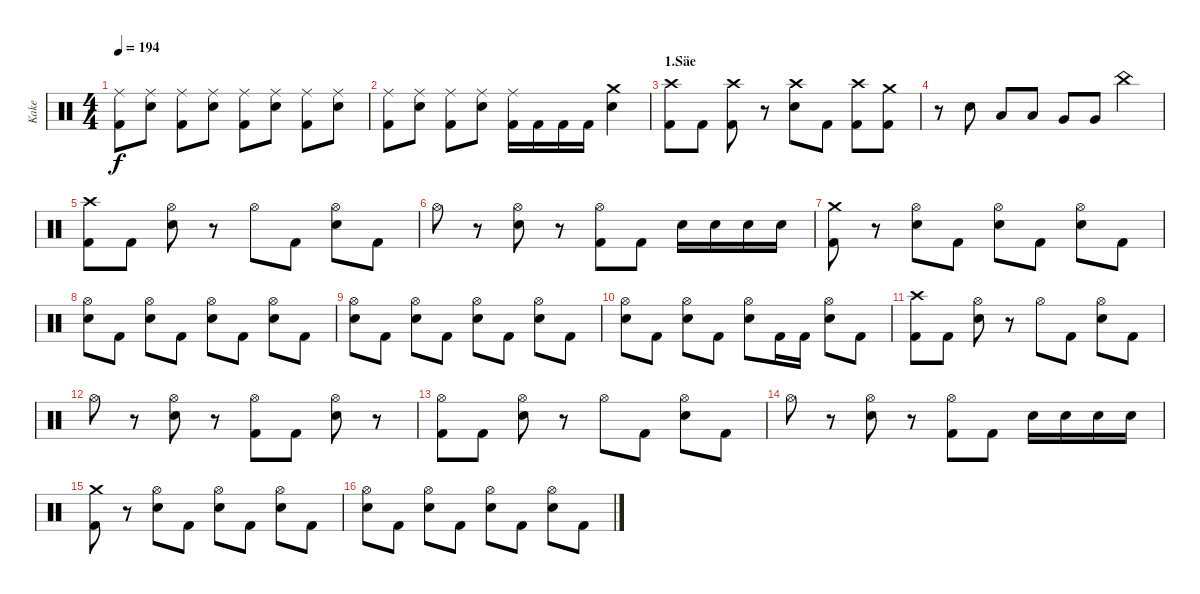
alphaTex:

\track ("Kake" "Kake") {instrument percussion}
\staff {score}
\articulation defaults
\ts (4 4)
\tempo 194
\clef neutral
\ks c
("Ride (middle)" "Kick (hit) 2").8{dy f} ("Ride (middle)" "Electric Snare (hit)").8 ("Ride (middle)" "Kick (hit) 2").8 ("Ride (middle)" "Electric Snare (hit)").8 ("Ride (middle)" "Kick (hit) 2").8 ("Ride (middle)" "Electric Snare (hit)").8 ("Ride (middle)" "Kick (hit) 2").8 ("Ride (middle)" "Electric Snare (hit)").8 |
("Ride (middle)" "Kick (hit) 2").8 ("Ride (middle)" "Electric Snare (hit)").8 ("Ride (middle)" "Kick (hit) 2").8 ("Ride (middle)" "Electric Snare (hit)").8 ("Ride (middle)" "Kick (hit) 2").16 "Kick (hit) 2".16 "Kick (hit) 2".16 "Kick (hit) 2".16 ("Crash medium (hit)" "Electric Snare (hit)").4 |
\section ("" "1.Säe")
("Crash high (hit)" "Kick (hit) 2").8 "Kick (hit) 2".8 ("Crash high (hit)" "Kick (hit) 2").8 r.8 ("Crash high (hit)" "Electric Snare (hit)").8 "Kick (hit) 2".8 ("Crash high (hit)" "Kick (hit) 2").8 ("Crash medium (hit)" "Kick (hit) 2").8 |
r.8 "Electric Snare (hit)".8 "Low Tom (hit)".8 "Low Tom (hit)".8 "Very Low Tom (hit)".8 "Very Low Tom (hit)".8 "China (hit)".4 |
("Crash high (hit)" "Kick (hit) 2").8 "Kick (hit) 2".8 ("Hi-Hat (open)" "Electric Snare (hit)").8 r.8 "Hi-Hat (open)".8 "Kick (hit) 2".8 ("Hi-Hat (open)" "Electric Snare (hit)").8 "Kick (hit) 2".8 |
"Hi-Hat (open)".8 r.8 ("Hi-Hat (open)" "Electric Snare (hit)").8 r.8 ("Hi-Hat (open)" "Kick (hit) 2").8 "Kick (hit) 2".8 "Electric Snare (hit)".16 "Electric Snare (hit)".16 "Electric Snare (hit)".16 "Electric Snare (hit)".16 |
("Crash medium (hit)" "Kick (hit) 2").8 r.8 ("Hi-Hat (open)" "Electric Snare (hit)").8 "Kick (hit) 2".8 ("Hi-Hat (open)" "Electric Snare (hit)").8 "Kick (hit) 2".8 ("Hi-Hat (open)" "Electric Snare (hit)").8 "Kick (hit) 2".8 |
("Hi-Hat (open)" "Electric Snare (hit)").8 "Kick (hit) 2".8 ("Hi-Hat (open)" "Electric Snare (hit)").8 "Kick (hit) 2".8 ("Hi-Hat (open)" "Electric Snare (hit)").8 "Kick (hit) 2".8 ("Hi-Hat (open)" "Electric Snare (hit)").8 "Kick (hit) 2".8 |
("Hi-Hat (open)" "Electric Snare (hit)").8 "Kick (hit) 2".8 ("Hi-Hat (open)" "Electric Snare (hit)").8 "Kick (hit) 2".8 ("Hi-Hat (open)" "Electric Snare (hit)").8 "Kick (hit) 2".8 ("Hi-Hat (open)" "Electric Snare (hit)").8 "Kick (hit) 2".8 |
("Hi-Hat (open)" "Electric Snare (hit)").8 "Kick (hit) 2".8 ("Hi-Hat (open)" "Electric Snare (hit)").8 "Kick (hit) 2".8 ("Hi-Hat (open)" "Electric Snare (hit)").8 "Kick (hit) 2".16 "Kick (hit) 2".16 ("Hi-Hat (open)" "Electric Snare (hit)").8 "Kick (hit) 2".8 |
("Crash high (hit)" "Kick (hit) 2").8 "Kick (hit) 2".8 ("Hi-Hat (open)" "Electric Snare (hit)").8 r.8 "Hi-Hat (open)".8 "Kick (hit) 2".8 ("Hi-Hat (open)" "Electric Snare (hit)").8 "Kick (hit) 2".8 |
"Hi-Hat (open)".8 r.8 ("Hi-Hat (open)" "Electric Snare (hit)").8 r.8 ("Hi-Hat (open)" "Kick (hit) 2").8 "Kick (hit) 2".8 ("Hi-Hat (open)" "Electric Snare (hit)").8 r.8 |
("Hi-Hat (open)" "Kick (hit) 2").8 "Kick (hit) 2".8 ("Hi-Hat (open)" "Electric Snare (hit)").8 r.8 "Hi-Hat (open)".8 "Kick (hit) 2".8 ("Hi-Hat (open)" "Electric Snare (hit)").8 "Kick (hit) 2".8 |
"Hi-Hat (open)".8 r.8 ("Hi-Hat (open)" "Electric Snare (hit)").8 r.8 ("Hi-Hat (open)" "Kick (hit) 2").8 "Kick (hit) 2".8 "Electric Snare (hit)".16 "Electric Snare (hit)".16 "Electric Snare (hit)".16 "Electric Snare (hit)".16 |
("Crash medium (hit)" "Kick (hit) 2").8 r.8 ("Hi-Hat (open)" "Electric Snare (hit)").8 "Kick (hit) 2".8 ("Hi-Hat (open)" "Electric Snare (hit)").8 "Kick (hit) 2".8 ("Hi-Hat (open)" "Electric Snare (hit)").8 "Kick (hit) 2".8 |
("Hi-Hat (open)" "Electric Snare (hit)").8 "Kick (hit) 2".8 ("Hi-Hat (open)" "Electric Snare (hit)").8 "Kick (hit) 2".8 ("Hi-Hat (open)" "Electric Snare (hit)").8 "Kick (hit) 2".8 ("Hi-Hat (open)" "Electric Snare (hit)").8 "Kick (hit) 2".8
